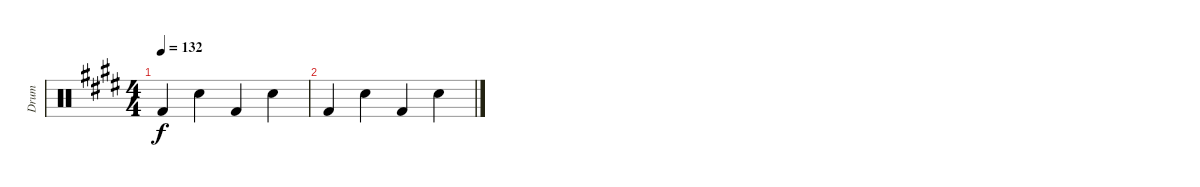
\track ("Drum" "Drum") {instrument percussion}
\staff {score}
\articulation defaults
\ts (4 4)
\tempo 132
\clef neutral
\ks e "Kick (hit) 2".4{dy f} "Snare (hit) 2".4 "Kick (hit) 2".4 "Snare (hit) 2".4
|
"Kick (hit) 2".4 "Snare (hit) 2".4 "Kick (hit) 2".4 "Snare (hit) 2".4
